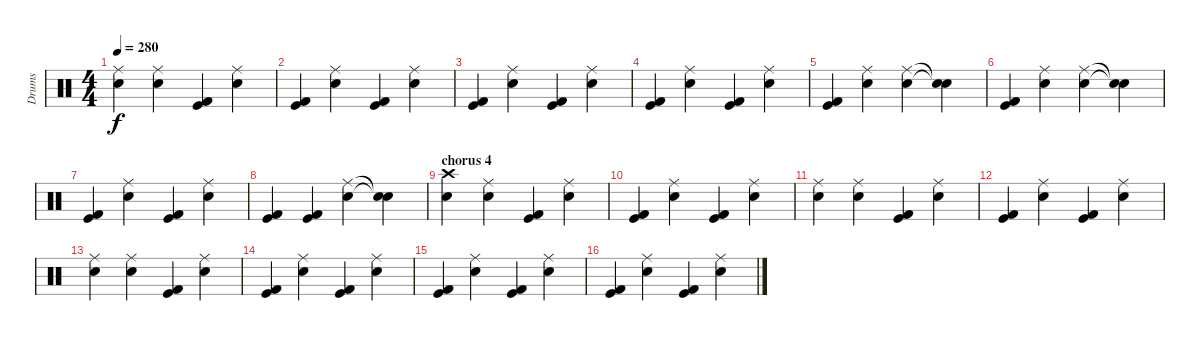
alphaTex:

\track ("Drums" "Drums") {instrument percussion}
\staff {score}
\articulation defaults
\ts (4 4)
\tempo 280
\clef neutral
\ks c
("Ride (middle)" "Electric Snare (hit)").4{dy f} ("Ride (middle)" "Electric Snare (hit)").4 ("Kick (hit)" "Kick (hit) 2").4 ("Ride (middle)" "Electric Snare (hit)").4 |
("Kick (hit)" "Kick (hit) 2").4 ("Ride (middle)" "Electric Snare (hit)").4 ("Kick (hit)" "Kick (hit) 2").4 ("Ride (middle)" "Electric Snare (hit)").4 |
("Kick (hit)" "Kick (hit) 2").4 ("Ride (middle)" "Electric Snare (hit)").4 ("Kick (hit)" "Kick (hit) 2").4 ("Ride (middle)" "Electric Snare (hit)").4 |
("Kick (hit)" "Kick (hit) 2").4 ("Ride (middle)" "Electric Snare (hit)").4 ("Kick (hit)" "Kick (hit) 2").4 ("Ride (middle)" "Electric Snare (hit)").4 |
("Kick (hit)" "Kick (hit) 2").4 ("Ride (middle)" "Electric Snare (hit)").4 ("Ride (middle)" "Electric Snare (hit)").4 ("Snare (hit)"{t} "Snare (hit)"{t}).4 |
("Kick (hit)" "Kick (hit) 2").4 ("Ride (middle)" "Electric Snare (hit)").4 ("Ride (middle)" "Electric Snare (hit)").4 ("Snare (hit)"{t} "Snare (hit)"{t}).4 |
("Kick (hit)" "Kick (hit) 2").4 ("Ride (middle)" "Electric Snare (hit)").4 ("Kick (hit)" "Kick (hit) 2").4 ("Ride (middle)" "Electric Snare (hit)").4 |
("Kick (hit)" "Kick (hit) 2").4 ("Kick (hit)" "Kick (hit) 2").4 ("Ride (middle)" "Electric Snare (hit)").4 ("Snare (hit)"{t} "Snare (hit)"{t}).4 |
\section ("" "chorus 4")
("Crash high (hit)" "Electric Snare (hit)").4 ("Ride (middle)" "Electric Snare (hit)").4 ("Kick (hit)" "Kick (hit) 2").4 ("Ride (middle)" "Electric Snare (hit)").4 |
("Kick (hit)" "Kick (hit) 2").4 ("Ride (middle)" "Electric Snare (hit)").4 ("Kick (hit)" "Kick (hit) 2").4 ("Ride (middle)" "Electric Snare (hit)").4 |
("Ride (middle)" "Electric Snare (hit)").4 ("Ride (middle)" "Electric Snare (hit)").4 ("Kick (hit)" "Kick (hit) 2").4 ("Ride (middle)" "Electric Snare (hit)").4 |
("Kick (hit)" "Kick (hit) 2").4 ("Ride (middle)" "Electric Snare (hit)").4 ("Kick (hit)" "Kick (hit) 2").4 ("Ride (middle)" "Electric Snare (hit)").4 |
("Ride (middle)" "Electric Snare (hit)").4 ("Ride (middle)" "Electric Snare (hit)").4 ("Kick (hit)" "Kick (hit) 2").4 ("Ride (middle)" "Electric Snare (hit)").4 |
("Kick (hit)" "Kick (hit) 2").4 ("Ride (middle)" "Electric Snare (hit)").4 ("Kick (hit)" "Kick (hit) 2").4 ("Ride (middle)" "Electric Snare (hit)").4 |
("Kick (hit)" "Kick (hit) 2").4 ("Ride (middle)" "Electric Snare (hit)").4 ("Kick (hit)" "Kick (hit) 2").4 ("Ride (middle)" "Electric Snare (hit)").4 |
("Kick (hit)" "Kick (hit) 2").4 ("Ride (middle)" "Electric Snare (hit)").4 ("Kick (hit)" "Kick (hit) 2").4 ("Ride (middle)" "Electric Snare (hit)").4
